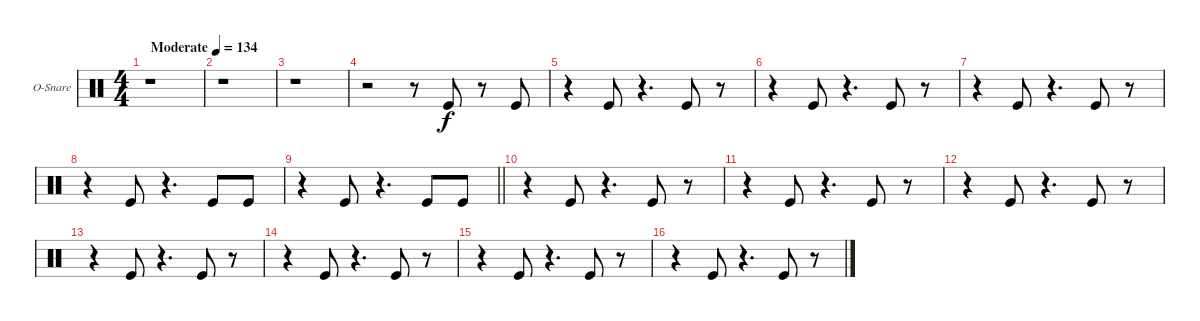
\bracketExtendMode groupsimilarinstruments
\firstSystemTrackNameOrientation horizontal
\otherSystemsTrackNameOrientation horizontal
\track ("Open Snare" "O-Snare") {instrument percussion}
\staff {score}
\articulation defaults
\ts (4 4)
\beaming (8 2 2 2 2)
\scale
0.21638
\tempo (134 "Moderate")
\accidentals auto
\clef neutral
\ottava regular
\simile none
\scale
0.297935
\ks c
r.1{dy f} |
\scale
0.352882
\scale
0.165192 r.1 |
\scale
0.205258
\scale
0.165192 r.1 |
\scale
0.22548
\scale
0.371681 r.2 r.8 "Kick (hit)".8 r.8 "Kick (hit)".8 |
\scale
0.186823
\scale
0.25 r.4 "Kick (hit)".8 r.4{d} "Kick (hit)".8 r.8 |
\scale
0.266245
\scale
0.25 r.4 "Kick (hit)".8 r.4{d} "Kick (hit)".8 r.8 |
\scale
0.273466
\scale
0.25 r.4 "Kick (hit)".8 r.4{d} "Kick (hit)".8 r.8 |
\scale
0.273466
\scale
0.25 r.4 "Kick (hit)".8 r.4{d} "Kick (hit)".8 "Kick (hit)".8 |
\scale
0.272011
\scale
0.25
\barLineRight lightlight
r.4 "Kick (hit)".8 r.4{d} "Kick (hit)".8 "Kick (hit)".8 |
\scale
0.245729
\scale
0.25 r.4 "Kick (hit)".8 r.4{d} "Kick (hit)".8 r.8 |
\scale
0.236531
\scale
0.25 r.4 "Kick (hit)".8 r.4{d} "Kick (hit)".8 r.8 |
\scale
0.245729
\scale
0.25 r.4 "Kick (hit)".8 r.4{d} "Kick (hit)".8 r.8 |
\scale
0.245232
\scale
0.25 r.4 "Kick (hit)".8 r.4{d} "Kick (hit)".8 r.8 |
\scale
0.254768
\scale
0.25 r.4 "Kick (hit)".8 r.4{d} "Kick (hit)".8 r.8 |
\scale
0.245232
\scale
0.25 r.4 "Kick (hit)".8 r.4{d} "Kick (hit)".8 r.8 |
\scale
0.254768
\scale
0.25 r.4 "Kick (hit)".8 r.4{d} "Kick (hit)".8 r.8
